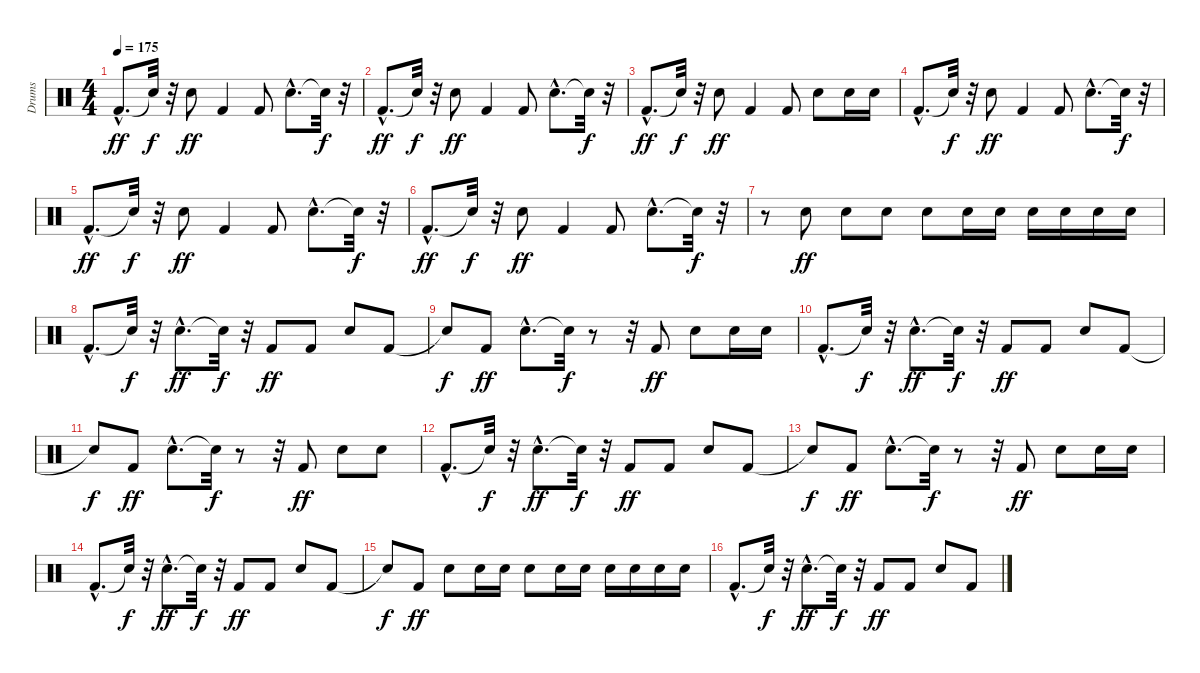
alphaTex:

\track ("Drums" "Drums") {instrument percussion}
\staff {score}
\articulation defaults
\ts (4 4)
\tempo 175
\clef neutral
\ks c "Kick (hit) 2"{hac}.8{d dy ff} "Snare (hit)"{t}.32{dy f}
r.32 "Electric Snare (hit)".8{dy ff} "Kick (hit) 2".4 "Kick (hit) 2".8 "Electric Snare (hit)"{hac}.8{d} "Snare (hit)"{t}.32{dy f} r.32 |
"Kick (hit) 2"{hac}.8{d dy ff} "Snare (hit)"{t}.32{dy f} r.32 "Electric Snare (hit)".8{dy ff} "Kick (hit) 2".4 "Kick (hit) 2".8 "Electric Snare (hit)"{hac}.8{d} "Snare (hit)"{t}.32{dy f} r.32 |
"Kick (hit) 2"{hac}.8{d dy ff} "Snare (hit)"{t}.32{dy f} r.32 "Electric Snare (hit)".8{dy ff} "Kick (hit) 2".4 "Kick (hit) 2".8 "Electric Snare (hit)".8 "Electric Snare (hit)".16 "Electric Snare (hit)".16 |
"Kick (hit) 2"{hac}.8{d} "Snare (hit)"{t}.32{dy f} r.32 "Electric Snare (hit)".8{dy ff} "Kick (hit) 2".4 "Kick (hit) 2".8 "Electric Snare (hit)"{hac}.8{d} "Snare (hit)"{t}.32{dy f} r.32 |
"Kick (hit) 2"{hac}.8{d dy ff} "Snare (hit)"{t}.32{dy f} r.32 "Electric Snare (hit)".8{dy ff} "Kick (hit) 2".4 "Kick (hit) 2".8 "Electric Snare (hit)"{hac}.8{d} "Snare (hit)"{t}.32{dy f} r.32 |
"Kick (hit) 2"{hac}.8{d dy ff} "Snare (hit)"{t}.32{dy f} r.32 "Electric Snare (hit)".8{dy ff} "Kick (hit) 2".4 "Kick (hit) 2".8 "Electric Snare (hit)"{hac}.8{d} "Snare (hit)"{t}.32{dy f} r.32 |
r.8 "Electric Snare (hit)".8{dy ff} "Electric Snare (hit)".8 "Electric Snare (hit)".8 "Electric Snare (hit)".8 "Electric Snare (hit)".16 "Electric Snare (hit)".16 "Electric Snare (hit)".16 "Electric Snare (hit)".16 "Electric Snare (hit)".16 "Electric Snare (hit)".16 |
"Kick (hit) 2"{hac}.8{d} "Snare (hit)"{t}.32{dy f} r.32 "Electric Snare (hit)"{hac}.8{d dy ff} "Snare (hit)"{t}.32{dy f} r.32 "Kick (hit) 2".8{dy ff} "Kick (hit) 2".8 "Electric Snare (hit)".8 "Kick (hit) 2".8 |
"Snare (hit)"{t}.8{dy f} "Kick (hit) 2".8{dy ff} "Electric Snare (hit)"{hac}.8{d} "Snare (hit)"{t}.32{dy f} r.8 r.32 "Kick (hit) 2".8{dy ff} "Electric Snare (hit)".8 "Electric Snare (hit)".16 "Electric Snare (hit)".16 |
"Kick (hit) 2"{hac}.8{d} "Snare (hit)"{t}.32{dy f} r.32 "Electric Snare (hit)"{hac}.8{d dy ff} "Snare (hit)"{t}.32{dy f} r.32 "Kick (hit) 2".8{dy ff} "Kick (hit) 2".8 "Electric Snare (hit)".8 "Kick (hit) 2".8 |
"Snare (hit)"{t}.8{dy f} "Kick (hit) 2".8{dy ff} "Electric Snare (hit)"{hac}.8{d} "Snare (hit)"{t}.32{dy f} r.8 r.32 "Kick (hit) 2".8{dy ff} "Electric Snare (hit)".8 "Electric Snare (hit)".8 |
"Kick (hit) 2"{hac}.8{d} "Snare (hit)"{t}.32{dy f} r.32 "Electric Snare (hit)"{hac}.8{d dy ff} "Snare (hit)"{t}.32{dy f} r.32 "Kick (hit) 2".8{dy ff} "Kick (hit) 2".8 "Electric Snare (hit)".8 "Kick (hit) 2".8 |
"Snare (hit)"{t}.8{dy f} "Kick (hit) 2".8{dy ff} "Electric Snare (hit)"{hac}.8{d} "Snare (hit)"{t}.32{dy f} r.8 r.32 "Kick (hit) 2".8{dy ff} "Electric Snare (hit)".8 "Electric Snare (hit)".16 "Electric Snare (hit)".16 |
"Kick (hit) 2"{hac}.8{d} "Snare (hit)"{t}.32{dy f} r.32 "Electric Snare (hit)"{hac}.8{d dy ff} "Snare (hit)"{t}.32{dy f} r.32 "Kick (hit) 2".8{dy ff} "Kick (hit) 2".8 "Electric Snare (hit)".8 "Kick (hit) 2".8 |
"Snare (hit)"{t}.8{dy f} "Kick (hit) 2".8{dy ff} "Electric Snare (hit)".8 "Electric Snare (hit)".16 "Electric Snare (hit)".16 "Electric Snare (hit)".8 "Electric Snare (hit)".16 "Electric Snare (hit)".16 "Electric Snare (hit)".16 "Electric Snare (hit)".16 "Electric Snare (hit)".16 "Electric Snare (hit)".16 |
"Kick (hit) 2"{hac}.8{d} "Snare (hit)"{t}.32{dy f} r.32 "Electric Snare (hit)"{hac}.8{d dy ff} "Snare (hit)"{t}.32{dy f} r.32 "Kick (hit) 2".8{dy ff} "Kick (hit) 2".8 "Electric Snare (hit)".8 "Kick (hit) 2".8
